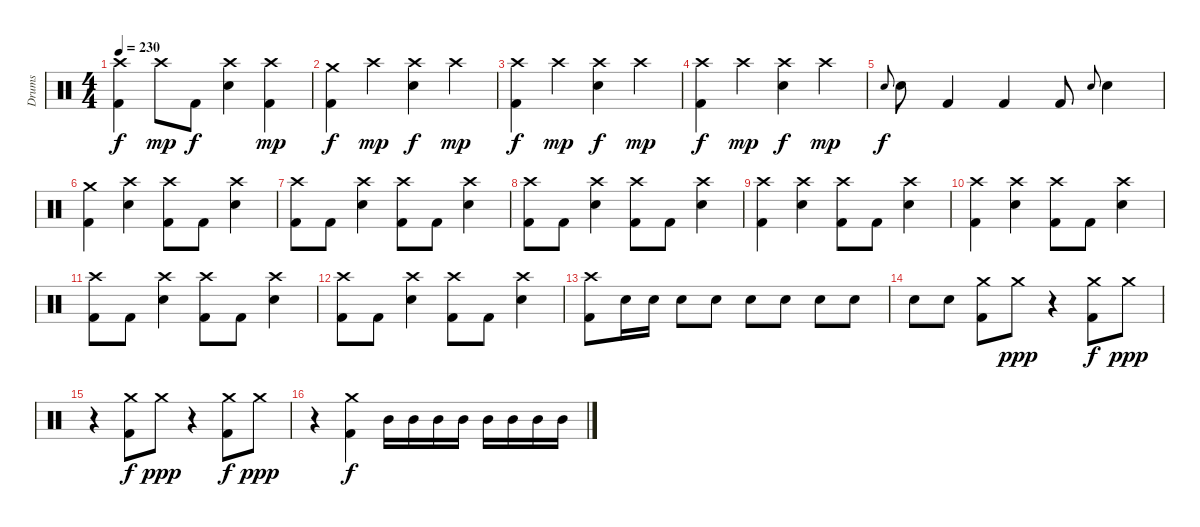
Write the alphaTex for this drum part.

\track ("Drums" "Drums") {instrument percussion}
\staff {score}
\articulation defaults
\ts (4 4)
\tempo 230
\clef neutral
\ks c
("Crash high (hit)" "Kick (hit) 2").4{dy f} "Crash high (hit)".8{dy mp} "Kick (hit) 2".8{dy f} ("Crash high (hit)" "Electric Snare (hit)").4 ("Kick (hit) 2" "Crash high (hit)").4{dy mp} |
("Crash medium (hit)" "Kick (hit) 2").4{dy f} "Crash high (hit)".4{dy mp} ("Electric Snare (hit)" "Crash high (hit)").4{dy f} "Crash high (hit)".4{dy mp} |
("Crash high (hit)" "Kick (hit) 2").4{dy f} "Crash high (hit)".4{dy mp} ("Electric Snare (hit)" "Crash high (hit)").4{dy f} "Crash high (hit)".4{dy mp} |
("Crash high (hit)" "Kick (hit) 2").4{dy f} "Crash high (hit)".4{dy mp} ("Electric Snare (hit)" "Crash high (hit)").4{dy f} "Crash high (hit)".4{dy mp} |
"Electric Snare (hit)".8{gr onbeat dy f} "Electric Snare (hit)".8 "Kick (hit) 2".4 "Kick (hit) 2".4 "Kick (hit) 2".8 "Electric Snare (hit)".8{gr onbeat} "Electric Snare (hit)".4 |
("Crash medium (hit)" "Kick (hit) 2").4 ("Crash high (hit)" "Electric Snare (hit)").4 ("Crash high (hit)" "Kick (hit) 2").8 "Kick (hit) 2".8 ("Crash high (hit)" "Electric Snare (hit)").4 |
("Crash high (hit)" "Kick (hit) 2").8 "Kick (hit) 2".8 ("Crash high (hit)" "Electric Snare (hit)").4 ("Crash high (hit)" "Kick (hit) 2").8 "Kick (hit) 2".8 ("Crash high (hit)" "Electric Snare (hit)").4 |
("Crash high (hit)" "Kick (hit) 2").8 "Kick (hit) 2".8 ("Crash high (hit)" "Electric Snare (hit)").4 ("Crash high (hit)" "Kick (hit) 2").8 "Kick (hit) 2".8 ("Crash high (hit)" "Electric Snare (hit)").4 |
("Crash high (hit)" "Kick (hit) 2").4 ("Crash high (hit)" "Electric Snare (hit)").4 ("Crash high (hit)" "Kick (hit) 2").8 "Kick (hit) 2".8 ("Crash high (hit)" "Electric Snare (hit)").4 |
("Crash high (hit)" "Kick (hit) 2").4 ("Crash high (hit)" "Electric Snare (hit)").4 ("Crash high (hit)" "Kick (hit) 2").8 "Kick (hit) 2".8 ("Crash high (hit)" "Electric Snare (hit)").4 |
("Crash high (hit)" "Kick (hit) 2").8 "Kick (hit) 2".8 ("Crash high (hit)" "Electric Snare (hit)").4 ("Crash high (hit)" "Kick (hit) 2").8 "Kick (hit) 2".8 ("Crash high (hit)" "Electric Snare (hit)").4 |
("Crash high (hit)" "Kick (hit) 2").8 "Kick (hit) 2".8 ("Crash high (hit)" "Electric Snare (hit)").4 ("Crash high (hit)" "Kick (hit) 2").8 "Kick (hit) 2".8 ("Crash high (hit)" "Electric Snare (hit)").4 |
("Crash high (hit)" "Kick (hit) 2").8 "Electric Snare (hit)".16 "Electric Snare (hit)".16 "Electric Snare (hit)".8 "Electric Snare (hit)".8 "Electric Snare (hit)".8 "Electric Snare (hit)".8 "Electric Snare (hit)".8 "Electric Snare (hit)".8 |
"Electric Snare (hit)".8 "Electric Snare (hit)".8 ("Crash medium (hit)" "Kick (hit) 2").8 "Crash medium (hit)".8{dy ppp} r.4 ("Crash medium (hit)" "Kick (hit) 2").8{dy f} "Crash medium (hit)".8{dy ppp} |
r.4 ("Crash medium (hit)" "Kick (hit) 2").8{dy f} "Crash medium (hit)".8{dy ppp} r.4 ("Crash medium (hit)" "Kick (hit) 2").8{dy f} "Crash medium (hit)".8{dy ppp} |
r.4 ("Crash medium (hit)" "Kick (hit) 2").4{dy f} "Mid Tom (hit)".16 "Mid Tom (hit)".16 "Mid Tom (hit)".16 "Mid Tom (hit)".16 "Mid Tom (hit)".16 "Mid Tom (hit)".16 "Mid Tom (hit)".16 "Mid Tom (hit)".16
